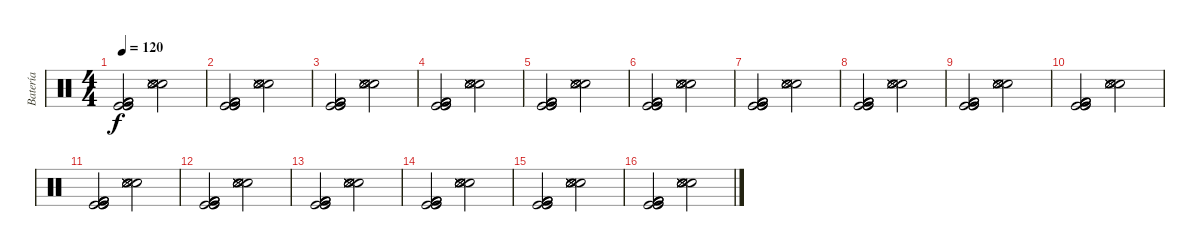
\track ("Batería" "Batería") {instrument percussion}
\staff {score}
\articulation defaults
\ts (4 4)
\tempo 120
\clef neutral
\ks c
("Kick (hit) 2" "Kick (hit)" "Kick (hit) 2" "Kick (hit)" "Kick (hit) 2" "Kick (hit)").2{dy f} ("Electric Snare (hit)" "Snare (side stick) 3" "Snare (side stick) 3" "Snare (hit) 2" "Snare (side stick) 3" "Snare (hit) 2").2 |
("Kick (hit) 2" "Kick (hit)" "Kick (hit) 2" "Kick (hit)" "Kick (hit) 2" "Kick (hit)").2 ("Electric Snare (hit)" "Snare (side stick) 3" "Snare (side stick) 3" "Snare (hit) 2" "Snare (side stick) 3" "Snare (hit) 2").2 |
("Kick (hit) 2" "Kick (hit)" "Kick (hit) 2" "Kick (hit)" "Kick (hit) 2" "Kick (hit)").2 ("Electric Snare (hit)" "Snare (side stick) 3" "Snare (side stick) 3" "Snare (hit) 2" "Snare (side stick) 3" "Snare (hit) 2").2 |
("Kick (hit) 2" "Kick (hit)" "Kick (hit) 2" "Kick (hit)" "Kick (hit) 2" "Kick (hit)").2 ("Electric Snare (hit)" "Snare (side stick) 3" "Snare (side stick) 3" "Snare (hit) 2" "Snare (side stick) 3" "Snare (hit) 2").2 |
("Kick (hit) 2" "Kick (hit)" "Kick (hit) 2" "Kick (hit)" "Kick (hit) 2" "Kick (hit)").2 ("Electric Snare (hit)" "Snare (side stick) 3" "Snare (side stick) 3" "Snare (hit) 2" "Snare (side stick) 3" "Snare (hit) 2").2 |
("Kick (hit) 2" "Kick (hit)" "Kick (hit) 2" "Kick (hit)" "Kick (hit) 2" "Kick (hit)").2 ("Electric Snare (hit)" "Snare (side stick) 3" "Snare (side stick) 3" "Snare (hit) 2" "Snare (side stick) 3" "Snare (hit) 2").2 |
("Kick (hit) 2" "Kick (hit)" "Kick (hit) 2" "Kick (hit)" "Kick (hit) 2" "Kick (hit)").2 ("Electric Snare (hit)" "Snare (side stick) 3" "Snare (side stick) 3" "Snare (hit) 2" "Snare (side stick) 3" "Snare (hit) 2").2 |
("Kick (hit) 2" "Kick (hit)" "Kick (hit) 2" "Kick (hit)" "Kick (hit) 2" "Kick (hit)").2 ("Electric Snare (hit)" "Snare (side stick) 3" "Snare (side stick) 3" "Snare (hit) 2" "Snare (side stick) 3" "Snare (hit) 2").2 |
("Kick (hit) 2" "Kick (hit)" "Kick (hit) 2" "Kick (hit)" "Kick (hit) 2" "Kick (hit)").2 ("Electric Snare (hit)" "Snare (side stick) 3" "Snare (side stick) 3" "Snare (hit) 2" "Snare (side stick) 3" "Snare (hit) 2").2 |
("Kick (hit) 2" "Kick (hit)" "Kick (hit) 2" "Kick (hit)" "Kick (hit) 2" "Kick (hit)").2 ("Electric Snare (hit)" "Snare (side stick) 3" "Snare (side stick) 3" "Snare (hit) 2" "Snare (side stick) 3" "Snare (hit) 2").2 |
("Kick (hit) 2" "Kick (hit)" "Kick (hit) 2" "Kick (hit)" "Kick (hit) 2" "Kick (hit)").2 ("Electric Snare (hit)" "Snare (side stick) 3" "Snare (side stick) 3" "Snare (hit) 2" "Snare (side stick) 3" "Snare (hit) 2").2 |
("Kick (hit) 2" "Kick (hit)" "Kick (hit) 2" "Kick (hit)" "Kick (hit) 2" "Kick (hit)").2 ("Electric Snare (hit)" "Snare (side stick) 3" "Snare (side stick) 3" "Snare (hit) 2" "Snare (side stick) 3" "Snare (hit) 2").2 |
("Kick (hit) 2" "Kick (hit)" "Kick (hit) 2" "Kick (hit)" "Kick (hit) 2" "Kick (hit)").2 ("Electric Snare (hit)" "Snare (side stick) 3" "Snare (side stick) 3" "Snare (hit) 2" "Snare (side stick) 3" "Snare (hit) 2").2 |
("Kick (hit) 2" "Kick (hit)" "Kick (hit) 2" "Kick (hit)" "Kick (hit) 2" "Kick (hit)").2 ("Electric Snare (hit)" "Snare (side stick) 3" "Snare (side stick) 3" "Snare (hit) 2" "Snare (side stick) 3" "Snare (hit) 2").2 |
("Kick (hit) 2" "Kick (hit)" "Kick (hit) 2" "Kick (hit)" "Kick (hit) 2" "Kick (hit)").2 ("Electric Snare (hit)" "Snare (side stick) 3" "Snare (side stick) 3" "Snare (hit) 2" "Snare (side stick) 3" "Snare (hit) 2").2 |
("Kick (hit) 2" "Kick (hit)" "Kick (hit) 2" "Kick (hit)" "Kick (hit) 2" "Kick (hit)").2 ("Electric Snare (hit)" "Snare (side stick) 3" "Snare (side stick) 3" "Snare (hit) 2" "Snare (side stick) 3" "Snare (hit) 2").2
